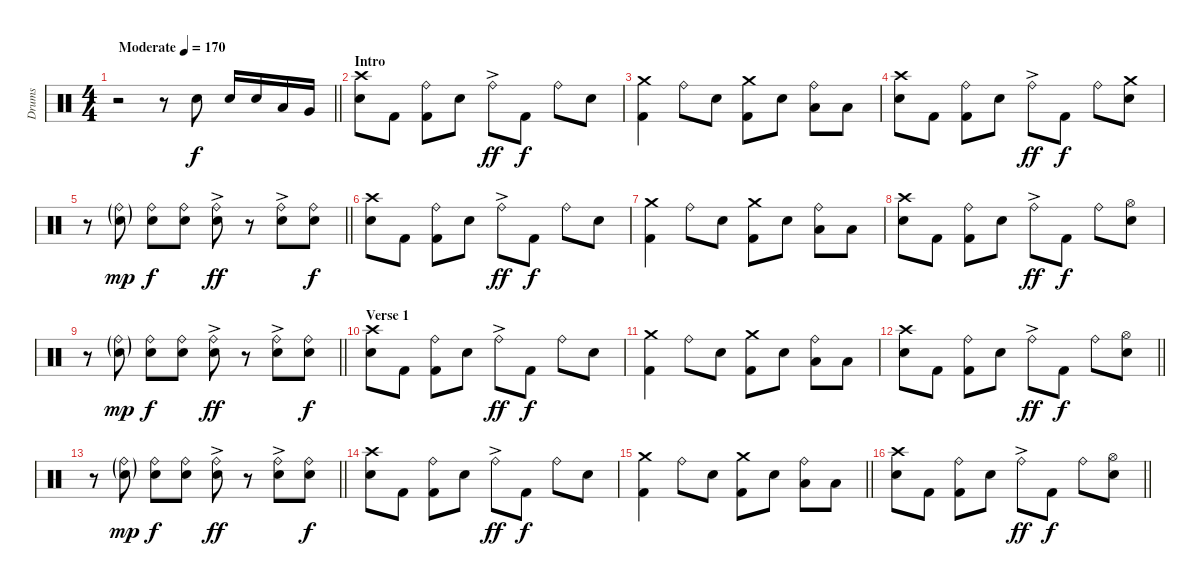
\track ("Drums" "Drums") {instrument percussion}
\staff {score}
\articulation defaults
\ts (4 4)
\tempo (170 "Moderate")
\clef neutral
\barLineRight lightlight
\ks c
r.2{dy f} r.8 "Snare (hit) 2".8 "Snare (hit) 2".16 "Snare (hit) 2".16 "Low Tom (hit)".16 "Very Low Tom (hit)".16 |
\section ("" "Intro")
("Crash high (hit)" "Snare (hit) 2").8 "Kick (hit) 2".8 ("Ride (bell)" "Kick (hit) 2").8 "Snare (hit) 2".8 "Ride (bell)"{ac}.8{dy ff} "Kick (hit) 2".8{dy f} "Ride (bell)".8 "Snare (hit) 2".8 |
("Crash medium (hit)" "Kick (hit) 2").4 "Ride (bell)".8 "Snare (hit) 2".8 ("Crash medium (hit)" "Kick (hit) 2").8 "Electric Snare (hit)".8 ("Ride (bell)" "Low Tom (hit)").8 "Low Tom (hit)".8 |
("Crash high (hit)" "Snare (hit) 2").8 "Kick (hit) 2".8 ("Ride (bell)" "Kick (hit) 2").8 "Snare (hit) 2".8 "Ride (bell)"{ac}.8{dy ff} "Kick (hit) 2".8{dy f} "Ride (bell)".8 ("Crash medium (hit)" "Snare (hit) 2").8 |
\barLineRight lightlight
r.8 ("Ride (bell)"{g} "Electric Snare (hit)"{g}).8{dy mp} ("Ride (bell)" "Electric Snare (hit)").8{dy f} ("Ride (bell)" "Electric Snare (hit)").8 ("Ride (bell)"{ac} "Electric Snare (hit)"{ac}).8{dy ff} r.8 ("Ride (bell)"{ac} "Electric Snare (hit)"{ac}).8 ("Ride (bell)" "Electric Snare (hit)").8{dy f} |
\section ("" "")
("Crash high (hit)" "Snare (hit) 2").8 "Kick (hit) 2".8 ("Ride (bell)" "Kick (hit) 2").8 "Snare (hit) 2".8 "Ride (bell)"{ac}.8{dy ff} "Kick (hit) 2".8{dy f} "Ride (bell)".8 "Snare (hit) 2".8 |
("Crash medium (hit)" "Kick (hit) 2").4 "Ride (bell)".8 "Snare (hit) 2".8 ("Crash medium (hit)" "Kick (hit) 2").8 "Electric Snare (hit)".8 ("Ride (bell)" "Low Tom (hit)").8 "Low Tom (hit)".8 |
("Crash high (hit)" "Snare (hit) 2").8 "Kick (hit) 2".8 ("Ride (bell)" "Kick (hit) 2").8 "Snare (hit) 2".8 "Ride (bell)"{ac}.8{dy ff} "Kick (hit) 2".8{dy f} "Ride (bell)".8 ("Hi-Hat (open)" "Snare (hit) 2").8 |
\barLineRight lightlight
r.8 ("Ride (bell)"{g} "Electric Snare (hit)"{g}).8{dy mp} ("Ride (bell)" "Electric Snare (hit)").8{dy f} ("Ride (bell)" "Electric Snare (hit)").8 ("Ride (bell)"{ac} "Electric Snare (hit)"{ac}).8{dy ff} r.8 ("Ride (bell)"{ac} "Electric Snare (hit)"{ac}).8 ("Ride (bell)" "Electric Snare (hit)").8{dy f} |
\section ("" "Verse 1")
("Crash high (hit)" "Snare (hit) 2").8 "Kick (hit) 2".8 ("Ride (bell)" "Kick (hit) 2").8 "Snare (hit) 2".8 "Ride (bell)"{ac}.8{dy ff} "Kick (hit) 2".8{dy f} "Ride (bell)".8 "Snare (hit) 2".8 |
("Crash medium (hit)" "Kick (hit) 2").4 "Ride (bell)".8 "Snare (hit) 2".8 ("Crash medium (hit)" "Kick (hit) 2").8 "Electric Snare (hit)".8 ("Ride (bell)" "Low Tom (hit)").8 "Low Tom (hit)".8 |
\barLineRight lightlight
("Crash high (hit)" "Snare (hit) 2").8 "Kick (hit) 2".8 ("Ride (bell)" "Kick (hit) 2").8 "Snare (hit) 2".8 "Ride (bell)"{ac}.8{dy ff} "Kick (hit) 2".8{dy f} "Ride (bell)".8 ("Hi-Hat (open)" "Snare (hit) 2").8 |
\barLineRight lightlight
r.8 ("Ride (bell)"{g} "Electric Snare (hit)"{g}).8{dy mp} ("Ride (bell)" "Electric Snare (hit)").8{dy f} ("Ride (bell)" "Electric Snare (hit)").8 ("Ride (bell)"{ac} "Electric Snare (hit)"{ac}).8{dy ff} r.8 ("Ride (bell)"{ac} "Electric Snare (hit)"{ac}).8 ("Ride (bell)" "Electric Snare (hit)").8{dy f} |
\section ("" "")
("Crash high (hit)" "Snare (hit) 2").8 "Kick (hit) 2".8 ("Ride (bell)" "Kick (hit) 2").8 "Snare (hit) 2".8 "Ride (bell)"{ac}.8{dy ff} "Kick (hit) 2".8{dy f} "Ride (bell)".8 "Snare (hit) 2".8 |
\barLineRight lightlight
("Crash medium (hit)" "Kick (hit) 2").4 "Ride (bell)".8 "Snare (hit) 2".8 ("Crash medium (hit)" "Kick (hit) 2").8 "Electric Snare (hit)".8 ("Ride (bell)" "Low Tom (hit)").8 "Low Tom (hit)".8 |
\barLineRight lightlight
("Crash high (hit)" "Snare (hit) 2").8 "Kick (hit) 2".8 ("Ride (bell)" "Kick (hit) 2").8 "Snare (hit) 2".8 "Ride (bell)"{ac}.8{dy ff} "Kick (hit) 2".8{dy f} "Ride (bell)".8 ("Hi-Hat (open)" "Snare (hit) 2").8
